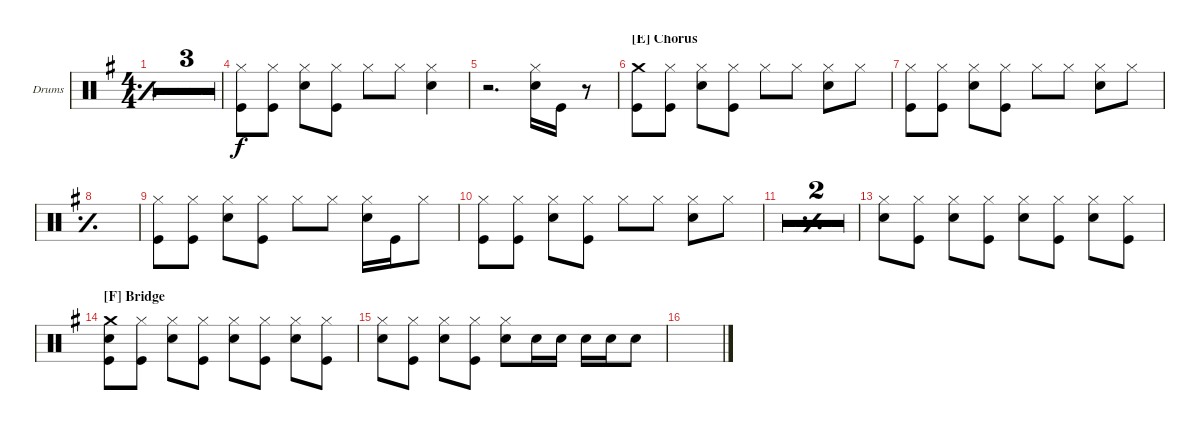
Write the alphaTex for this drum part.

\defaultSystemsLayout 4
\bracketExtendMode groupsimilarinstruments
\firstSystemTrackNameOrientation horizontal
\otherSystemsTrackNameOrientation horizontal
\track ("Matt Helders " "Drums") {multiBarRest instrument percussion}
\staff {score}
\articulation defaults
\ts (4 4)
\tempo 90
\clef neutral
\simile simple
\ks g
|
|
|
("Kick (hit)" "Hi-Hat (closed)").8 ("Kick (hit)" "Hi-Hat (closed)").8 ("Snare (hit) 2" "Hi-Hat (closed)").8 ("Kick (hit)" "Hi-Hat (closed)").8 "Hi-Hat (closed)".8 "Hi-Hat (closed)".8 ("Snare (hit) 2" "Hi-Hat (closed)").4 |
r.2{d} ("Snare (hit) 2" "Hi-Hat (closed)").16 "Kick (hit)".16 r.8 |
\section ("E" "Chorus")
("Kick (hit)" "Crash medium (hit)").8 ("Kick (hit)" "Hi-Hat (closed)").8 ("Snare (hit) 2" "Hi-Hat (closed)").8 ("Kick (hit)" "Hi-Hat (closed)").8 "Hi-Hat (closed)".8 "Hi-Hat (closed)".8 ("Snare (hit) 2" "Hi-Hat (closed)").8 "Hi-Hat (closed)".8 |
("Kick (hit)" "Hi-Hat (closed)").8 ("Kick (hit)" "Hi-Hat (closed)").8 ("Snare (hit) 2" "Hi-Hat (closed)").8 ("Kick (hit)" "Hi-Hat (closed)").8 "Hi-Hat (closed)".8 "Hi-Hat (closed)".8 ("Snare (hit) 2" "Hi-Hat (closed)").8 "Hi-Hat (closed)".8 |
\simile simple
|
\simile none
("Kick (hit)" "Hi-Hat (closed)").8 ("Kick (hit)" "Hi-Hat (closed)").8 ("Snare (hit) 2" "Hi-Hat (closed)").8 ("Kick (hit)" "Hi-Hat (closed)").8 "Hi-Hat (closed)".8 "Hi-Hat (closed)".8 ("Snare (hit) 2" "Hi-Hat (closed)").16 "Kick (hit)".16 "Hi-Hat (closed)".8 |
("Kick (hit)" "Hi-Hat (closed)").8 ("Kick (hit)" "Hi-Hat (closed)").8 ("Snare (hit) 2" "Hi-Hat (closed)").8 ("Kick (hit)" "Hi-Hat (closed)").8 "Hi-Hat (closed)".8 "Hi-Hat (closed)".8 ("Snare (hit) 2" "Hi-Hat (closed)").8 "Hi-Hat (closed)".8 |
\simile simple
|
|
\simile none
("Snare (hit) 2" "Hi-Hat (closed)").8 ("Kick (hit)" "Hi-Hat (closed)").8 ("Snare (hit) 2" "Hi-Hat (closed)").8 ("Kick (hit)" "Hi-Hat (closed)").8 ("Snare (hit) 2" "Hi-Hat (closed)").8 ("Kick (hit)" "Hi-Hat (closed)").8 ("Snare (hit) 2" "Hi-Hat (closed)").8 ("Kick (hit)" "Hi-Hat (closed)").8 |
\section ("F" "Bridge")
("Kick (hit)" "Crash medium (hit)" "Snare (hit) 2").8 ("Kick (hit)" "Hi-Hat (closed)").8 ("Snare (hit) 2" "Hi-Hat (closed)").8 ("Kick (hit)" "Hi-Hat (closed)").8 ("Snare (hit) 2" "Hi-Hat (closed)").8 ("Kick (hit)" "Hi-Hat (closed)").8 ("Snare (hit) 2" "Hi-Hat (closed)").8 ("Kick (hit)" "Hi-Hat (closed)").8 |
("Snare (hit) 2" "Hi-Hat (closed)").8 ("Kick (hit)" "Hi-Hat (closed)").8 ("Snare (hit) 2" "Hi-Hat (closed)").8 ("Kick (hit)" "Hi-Hat (closed)").8 ("Snare (hit) 2" "Hi-Hat (closed)").8 "Snare (hit) 2".16 "Snare (hit) 2".16 "Snare (hit) 2".16 "Snare (hit) 2".16 "Snare (hit) 2".8 |
\simile firstofdouble
